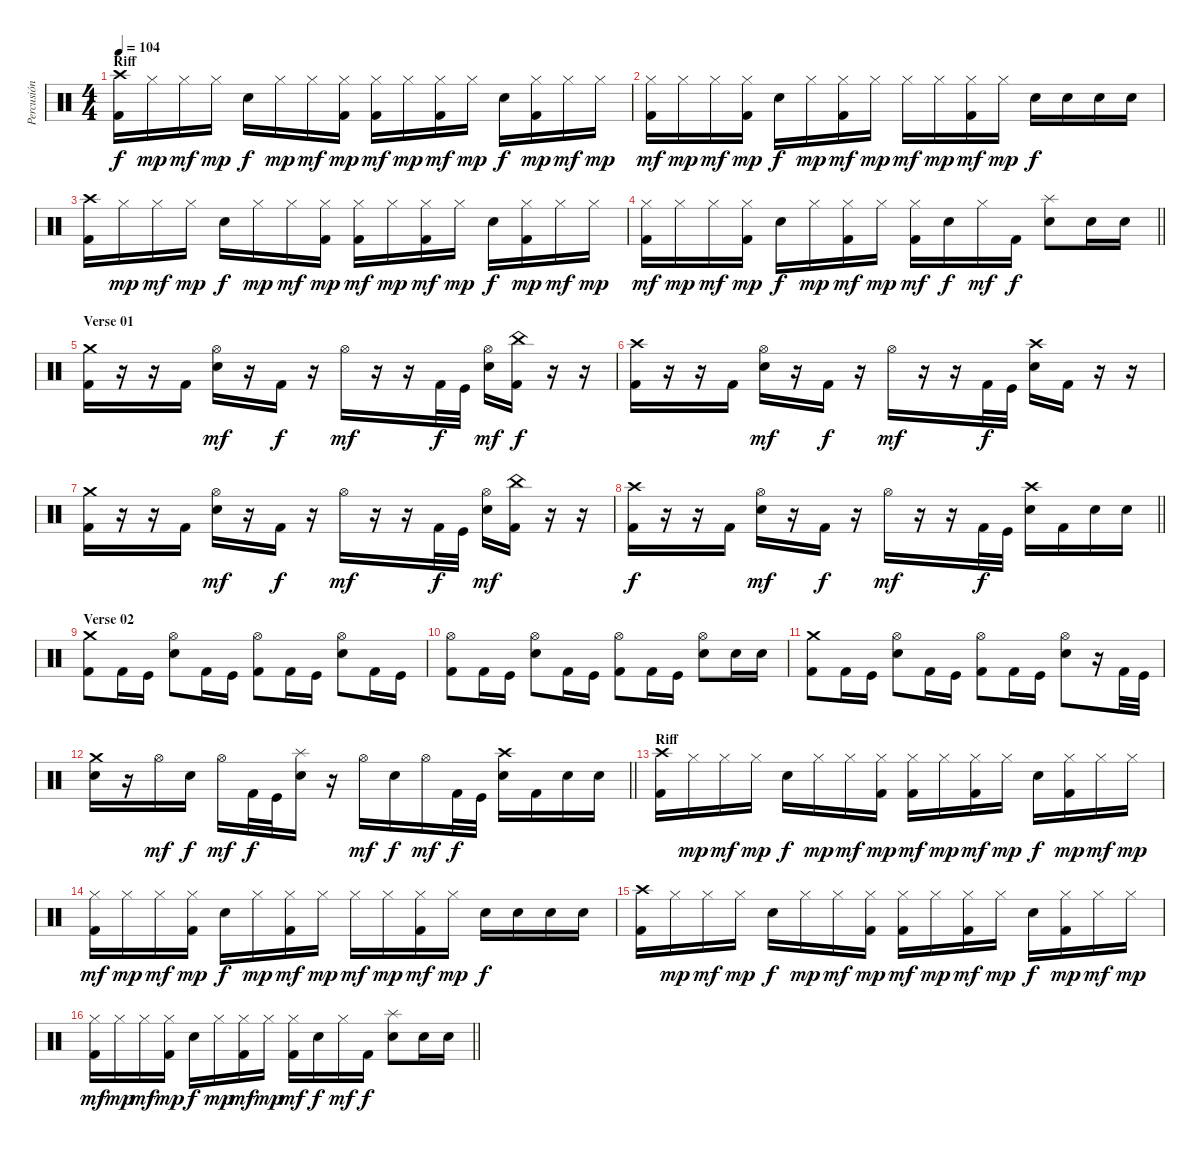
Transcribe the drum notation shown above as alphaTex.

\track ("Percusión" "Percusión") {instrument percussion}
\staff {score}
\articulation defaults
\ts (4 4)
\section ("" "Riff")
\tempo 104
\clef neutral
\ks c
("Crash high (hit)" "Kick (hit) 2").16{dy f} "Hi-Hat (closed)".16{dy mp} "Hi-Hat (closed)".16{dy mf} "Hi-Hat (closed)".16{dy mp} "Snare (hit) 2".16{dy f} "Hi-Hat (closed)".16{dy mp} "Hi-Hat (closed)".16{dy mf} ("Hi-Hat (closed)" "Kick (hit) 2").16{dy mp} ("Hi-Hat (closed)" "Kick (hit) 2").16{dy mf} "Hi-Hat (closed)".16{dy mp} ("Hi-Hat (closed)" "Kick (hit) 2").16{dy mf} "Hi-Hat (closed)".16{dy mp} "Snare (hit) 2".16{dy f} ("Hi-Hat (closed)" "Kick (hit) 2").16{dy mp} "Hi-Hat (closed)".16{dy mf} "Hi-Hat (closed)".16{dy mp} |
("Hi-Hat (closed)" "Kick (hit) 2").16{dy mf} "Hi-Hat (closed)".16{dy mp} "Hi-Hat (closed)".16{dy mf} ("Hi-Hat (closed)" "Kick (hit) 2").16{dy mp} "Snare (hit) 2".16{dy f} "Hi-Hat (closed)".16{dy mp} ("Hi-Hat (closed)" "Kick (hit) 2").16{dy mf} "Hi-Hat (closed)".16{dy mp} "Hi-Hat (closed)".16{dy mf} "Hi-Hat (closed)".16{dy mp} ("Hi-Hat (closed)" "Kick (hit) 2").16{dy mf} "Hi-Hat (closed)".16{dy mp} "Snare (hit) 2".16{dy f} "Snare (hit) 2".16 "Snare (hit) 2".16 "Snare (hit) 2".16 |
("Crash high (hit)" "Kick (hit) 2").16 "Hi-Hat (closed)".16{dy mp} "Hi-Hat (closed)".16{dy mf} "Hi-Hat (closed)".16{dy mp} "Snare (hit) 2".16{dy f} "Hi-Hat (closed)".16{dy mp} "Hi-Hat (closed)".16{dy mf} ("Hi-Hat (closed)" "Kick (hit) 2").16{dy mp} ("Hi-Hat (closed)" "Kick (hit) 2").16{dy mf} "Hi-Hat (closed)".16{dy mp} ("Hi-Hat (closed)" "Kick (hit) 2").16{dy mf} "Hi-Hat (closed)".16{dy mp} "Snare (hit) 2".16{dy f} ("Hi-Hat (closed)" "Kick (hit) 2").16{dy mp} "Hi-Hat (closed)".16{dy mf} "Hi-Hat (closed)".16{dy mp} |
\barLineRight lightlight
("Hi-Hat (closed)" "Kick (hit) 2").16{dy mf} "Hi-Hat (closed)".16{dy mp} "Hi-Hat (closed)".16{dy mf} ("Hi-Hat (closed)" "Kick (hit) 2").16{dy mp} "Snare (hit) 2".16{dy f} "Hi-Hat (closed)".16{dy mp} ("Hi-Hat (closed)" "Kick (hit) 2").16{dy mf} "Hi-Hat (closed)".16{dy mp} ("Hi-Hat (closed)" "Kick (hit) 2").16{dy mf} "Snare (hit) 2".16{dy f} "Hi-Hat (closed)".16{dy mf} "Kick (hit) 2".16{dy f} ("Splash (hit)" "Snare (hit) 2").8 "Snare (hit) 2".16 "Snare (hit) 2".16 |
\section ("" "Verse 01")
("Crash medium (hit)" "Kick (hit) 2").16 r.16 r.16 "Kick (hit) 2".16 ("Hi-Hat (open)" "Snare (hit) 2").16{dy mf} r.16 "Kick (hit) 2".16{dy f} r.16 "Hi-Hat (open)".16{dy mf} r.16 r.16 "Kick (hit) 2".32{dy f} "Kick (hit)".32 ("Hi-Hat (open)" "Snare (hit) 2").16{dy mf} ("China (hit)" "Kick (hit) 2").16{dy f} r.16 r.16 |
("Crash high (hit)" "Kick (hit) 2").16 r.16 r.16 "Kick (hit) 2".16 ("Hi-Hat (open)" "Snare (hit) 2").16{dy mf} r.16 "Kick (hit) 2".16{dy f} r.16 "Hi-Hat (open)".16{dy mf} r.16 r.16 "Kick (hit) 2".32{dy f} "Kick (hit)".32 ("Crash high (hit)" "Snare (hit) 2").16 "Kick (hit) 2".16 r.16 r.16 |
("Crash medium (hit)" "Kick (hit) 2").16 r.16 r.16 "Kick (hit) 2".16 ("Hi-Hat (open)" "Snare (hit) 2").16{dy mf} r.16 "Kick (hit) 2".16{dy f} r.16 "Hi-Hat (open)".16{dy mf} r.16 r.16 "Kick (hit) 2".32{dy f} "Kick (hit)".32 ("Hi-Hat (open)" "Snare (hit) 2").16{dy mf} ("China (hit)" "Kick (hit) 2").16 r.16 r.16 |
\barLineRight lightlight
("Crash high (hit)" "Kick (hit) 2").16{dy f} r.16 r.16 "Kick (hit) 2".16 ("Hi-Hat (open)" "Snare (hit) 2").16{dy mf} r.16 "Kick (hit) 2".16{dy f} r.16 "Hi-Hat (open)".16{dy mf} r.16 r.16 "Kick (hit) 2".32{dy f} "Kick (hit)".32 ("Crash high (hit)" "Snare (hit) 2").16 "Kick (hit) 2".16 "Snare (hit) 2".16 "Snare (hit) 2".16 |
\section ("" "Verse 02")
("Crash medium (hit)" "Kick (hit) 2").8 "Kick (hit) 2".16 "Kick (hit)".16 ("Hi-Hat (open)" "Snare (hit) 2").8 "Kick (hit) 2".16 "Kick (hit)".16 ("Hi-Hat (open)" "Kick (hit) 2").8 "Kick (hit) 2".16 "Kick (hit)".16 ("Hi-Hat (open)" "Snare (hit) 2").8 "Kick (hit) 2".16 "Kick (hit)".16 |
("Hi-Hat (open)" "Kick (hit) 2").8 "Kick (hit) 2".16 "Kick (hit)".16 ("Hi-Hat (open)" "Snare (hit) 2").8 "Kick (hit) 2".16 "Kick (hit)".16 ("Hi-Hat (open)" "Kick (hit) 2").8 "Kick (hit) 2".16 "Kick (hit)".16 ("Hi-Hat (open)" "Snare (hit) 2").8 "Snare (hit) 2".16 "Snare (hit) 2".16 |
("Crash medium (hit)" "Kick (hit) 2").8 "Kick (hit) 2".16 "Kick (hit)".16 ("Hi-Hat (open)" "Snare (hit) 2").8 "Kick (hit) 2".16 "Kick (hit)".16 ("Hi-Hat (open)" "Kick (hit) 2").8 "Kick (hit) 2".16 "Kick (hit)".16 ("Hi-Hat (open)" "Snare (hit) 2").8 r.16 "Kick (hit) 2".32 "Kick (hit)".32 |
\barLineRight lightlight
("Crash medium (hit)" "Snare (hit) 2").16 r.16 "Hi-Hat (open)".16{dy mf} "Snare (hit) 2".16{dy f} "Hi-Hat (open)".16{dy mf} "Kick (hit) 2".32{dy f} "Kick (hit)".32 ("Splash (hit)" "Snare (hit) 2").16 r.16 "Hi-Hat (open)".16{dy mf} "Snare (hit) 2".16{dy f} "Hi-Hat (open)".16{dy mf} "Kick (hit) 2".32{dy f} "Kick (hit)".32 ("Crash high (hit)" "Snare (hit) 2").16 "Kick (hit) 2".16 "Snare (hit) 2".16 "Snare (hit) 2".16 |
\section ("" "Riff")
("Crash high (hit)" "Kick (hit) 2").16 "Hi-Hat (closed)".16{dy mp} "Hi-Hat (closed)".16{dy mf} "Hi-Hat (closed)".16{dy mp} "Snare (hit) 2".16{dy f} "Hi-Hat (closed)".16{dy mp} "Hi-Hat (closed)".16{dy mf} ("Hi-Hat (closed)" "Kick (hit) 2").16{dy mp} ("Hi-Hat (closed)" "Kick (hit) 2").16{dy mf} "Hi-Hat (closed)".16{dy mp} ("Hi-Hat (closed)" "Kick (hit) 2").16{dy mf} "Hi-Hat (closed)".16{dy mp} "Snare (hit) 2".16{dy f} ("Hi-Hat (closed)" "Kick (hit) 2").16{dy mp} "Hi-Hat (closed)".16{dy mf} "Hi-Hat (closed)".16{dy mp} |
("Hi-Hat (closed)" "Kick (hit) 2").16{dy mf} "Hi-Hat (closed)".16{dy mp} "Hi-Hat (closed)".16{dy mf} ("Hi-Hat (closed)" "Kick (hit) 2").16{dy mp} "Snare (hit) 2".16{dy f} "Hi-Hat (closed)".16{dy mp} ("Hi-Hat (closed)" "Kick (hit) 2").16{dy mf} "Hi-Hat (closed)".16{dy mp} "Hi-Hat (closed)".16{dy mf} "Hi-Hat (closed)".16{dy mp} ("Hi-Hat (closed)" "Kick (hit) 2").16{dy mf} "Hi-Hat (closed)".16{dy mp} "Snare (hit) 2".16{dy f} "Snare (hit) 2".16 "Snare (hit) 2".16 "Snare (hit) 2".16 |
("Crash high (hit)" "Kick (hit) 2").16 "Hi-Hat (closed)".16{dy mp} "Hi-Hat (closed)".16{dy mf} "Hi-Hat (closed)".16{dy mp} "Snare (hit) 2".16{dy f} "Hi-Hat (closed)".16{dy mp} "Hi-Hat (closed)".16{dy mf} ("Hi-Hat (closed)" "Kick (hit) 2").16{dy mp} ("Hi-Hat (closed)" "Kick (hit) 2").16{dy mf} "Hi-Hat (closed)".16{dy mp} ("Hi-Hat (closed)" "Kick (hit) 2").16{dy mf} "Hi-Hat (closed)".16{dy mp} "Snare (hit) 2".16{dy f} ("Hi-Hat (closed)" "Kick (hit) 2").16{dy mp} "Hi-Hat (closed)".16{dy mf} "Hi-Hat (closed)".16{dy mp} |
\barLineRight lightlight
("Hi-Hat (closed)" "Kick (hit) 2").16{dy mf} "Hi-Hat (closed)".16{dy mp} "Hi-Hat (closed)".16{dy mf} ("Hi-Hat (closed)" "Kick (hit) 2").16{dy mp} "Snare (hit) 2".16{dy f} "Hi-Hat (closed)".16{dy mp} ("Hi-Hat (closed)" "Kick (hit) 2").16{dy mf} "Hi-Hat (closed)".16{dy mp} ("Hi-Hat (closed)" "Kick (hit) 2").16{dy mf} "Snare (hit) 2".16{dy f} "Hi-Hat (closed)".16{dy mf} "Kick (hit) 2".16{dy f} ("Splash (hit)" "Snare (hit) 2").8 "Snare (hit) 2".16 "Snare (hit) 2".16
